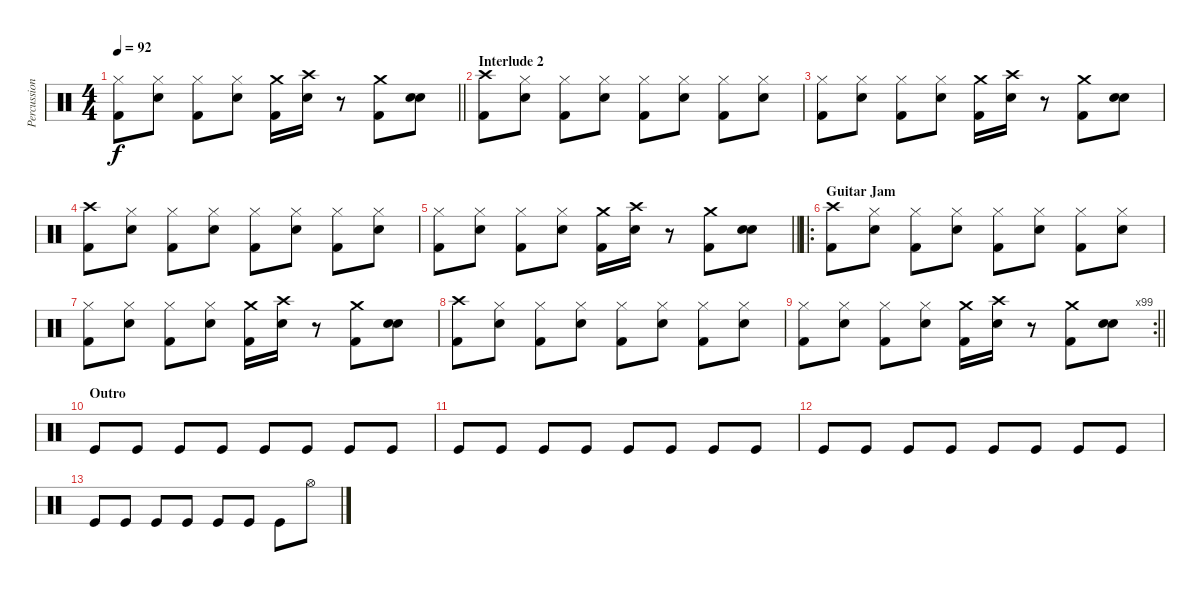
\track ("Percussion" "Percussion") {instrument percussion}
\staff {score}
\articulation defaults
\ts (4 4)
\tempo 92
\clef neutral
\barLineRight lightlight
\ks c
("Hi-Hat (closed)" "Kick (hit) 2").8{dy f} ("Hi-Hat (closed)" "Snare (hit) 2").8 ("Hi-Hat (closed)" "Kick (hit) 2").8 ("Hi-Hat (closed)" "Snare (hit) 2").8 ("Crash medium (hit)" "Kick (hit) 2").16 ("Crash high (hit)" "Snare (hit) 2").16 r.8 ("Crash medium (hit)" "Kick (hit) 2").8 ("Snare (hit) 2" "Snare (hit) 2").8{bd 240} |
\section ("" "Interlude 2")
("Crash high (hit)" "Kick (hit) 2").8 ("Hi-Hat (closed)" "Snare (hit) 2").8 ("Hi-Hat (closed)" "Kick (hit) 2").8 ("Hi-Hat (closed)" "Snare (hit) 2").8 ("Hi-Hat (closed)" "Kick (hit) 2").8 ("Hi-Hat (closed)" "Snare (hit) 2").8 ("Hi-Hat (closed)" "Kick (hit) 2").8 ("Hi-Hat (closed)" "Snare (hit) 2").8 |
("Hi-Hat (closed)" "Kick (hit) 2").8 ("Hi-Hat (closed)" "Snare (hit) 2").8 ("Hi-Hat (closed)" "Kick (hit) 2").8 ("Hi-Hat (closed)" "Snare (hit) 2").8 ("Crash medium (hit)" "Kick (hit) 2").16 ("Crash high (hit)" "Snare (hit) 2").16 r.8 ("Crash medium (hit)" "Kick (hit) 2").8 ("Snare (hit) 2" "Snare (hit) 2").8{bd 240} |
("Crash high (hit)" "Kick (hit) 2").8 ("Hi-Hat (closed)" "Snare (hit) 2").8 ("Hi-Hat (closed)" "Kick (hit) 2").8 ("Hi-Hat (closed)" "Snare (hit) 2").8 ("Hi-Hat (closed)" "Kick (hit) 2").8 ("Hi-Hat (closed)" "Snare (hit) 2").8 ("Hi-Hat (closed)" "Kick (hit) 2").8 ("Hi-Hat (closed)" "Snare (hit) 2").8 |
\barLineRight lightlight
("Hi-Hat (closed)" "Kick (hit) 2").8 ("Hi-Hat (closed)" "Snare (hit) 2").8 ("Hi-Hat (closed)" "Kick (hit) 2").8 ("Hi-Hat (closed)" "Snare (hit) 2").8 ("Crash medium (hit)" "Kick (hit) 2").16 ("Crash high (hit)" "Snare (hit) 2").16 r.8 ("Crash medium (hit)" "Kick (hit) 2").8 ("Snare (hit) 2" "Snare (hit) 2").8{bd 240} |
\ro
\section ("" "Guitar Jam")
("Crash high (hit)" "Kick (hit) 2").8 ("Hi-Hat (closed)" "Snare (hit) 2").8 ("Hi-Hat (closed)" "Kick (hit) 2").8 ("Hi-Hat (closed)" "Snare (hit) 2").8 ("Hi-Hat (closed)" "Kick (hit) 2").8 ("Hi-Hat (closed)" "Snare (hit) 2").8 ("Hi-Hat (closed)" "Kick (hit) 2").8 ("Hi-Hat (closed)" "Snare (hit) 2").8 |
("Hi-Hat (closed)" "Kick (hit) 2").8 ("Hi-Hat (closed)" "Snare (hit) 2").8 ("Hi-Hat (closed)" "Kick (hit) 2").8 ("Hi-Hat (closed)" "Snare (hit) 2").8 ("Crash medium (hit)" "Kick (hit) 2").16 ("Crash high (hit)" "Snare (hit) 2").16 r.8 ("Crash medium (hit)" "Kick (hit) 2").8 ("Snare (hit) 2" "Snare (hit) 2").8{bd 240} |
("Crash high (hit)" "Kick (hit) 2").8 ("Hi-Hat (closed)" "Snare (hit) 2").8 ("Hi-Hat (closed)" "Kick (hit) 2").8 ("Hi-Hat (closed)" "Snare (hit) 2").8 ("Hi-Hat (closed)" "Kick (hit) 2").8 ("Hi-Hat (closed)" "Snare (hit) 2").8 ("Hi-Hat (closed)" "Kick (hit) 2").8 ("Hi-Hat (closed)" "Snare (hit) 2").8 |
\rc 99
\barLineRight lightlight
("Hi-Hat (closed)" "Kick (hit) 2").8 ("Hi-Hat (closed)" "Snare (hit) 2").8 ("Hi-Hat (closed)" "Kick (hit) 2").8 ("Hi-Hat (closed)" "Snare (hit) 2").8 ("Crash medium (hit)" "Kick (hit) 2").16 ("Crash high (hit)" "Snare (hit) 2").16 r.8 ("Crash medium (hit)" "Kick (hit) 2").8 ("Snare (hit) 2" "Snare (hit) 2").8{bd 240} |
\section ("" "Outro")
"Kick (hit)".8 "Kick (hit)".8 "Kick (hit)".8 "Kick (hit)".8 "Kick (hit)".8 "Kick (hit)".8 "Kick (hit)".8 "Kick (hit)".8 |
"Kick (hit)".8 "Kick (hit)".8 "Kick (hit)".8 "Kick (hit)".8 "Kick (hit)".8 "Kick (hit)".8 "Kick (hit)".8 "Kick (hit)".8 |
"Kick (hit)".8 "Kick (hit)".8 "Kick (hit)".8 "Kick (hit)".8 "Kick (hit)".8 "Kick (hit)".8 "Kick (hit)".8 "Kick (hit)".8 |
"Kick (hit)".8 "Kick (hit)".8 "Kick (hit)".8 "Kick (hit)".8 "Kick (hit)".8 "Kick (hit)".8 "Kick (hit)".8 "Hi-Hat (open)".8
